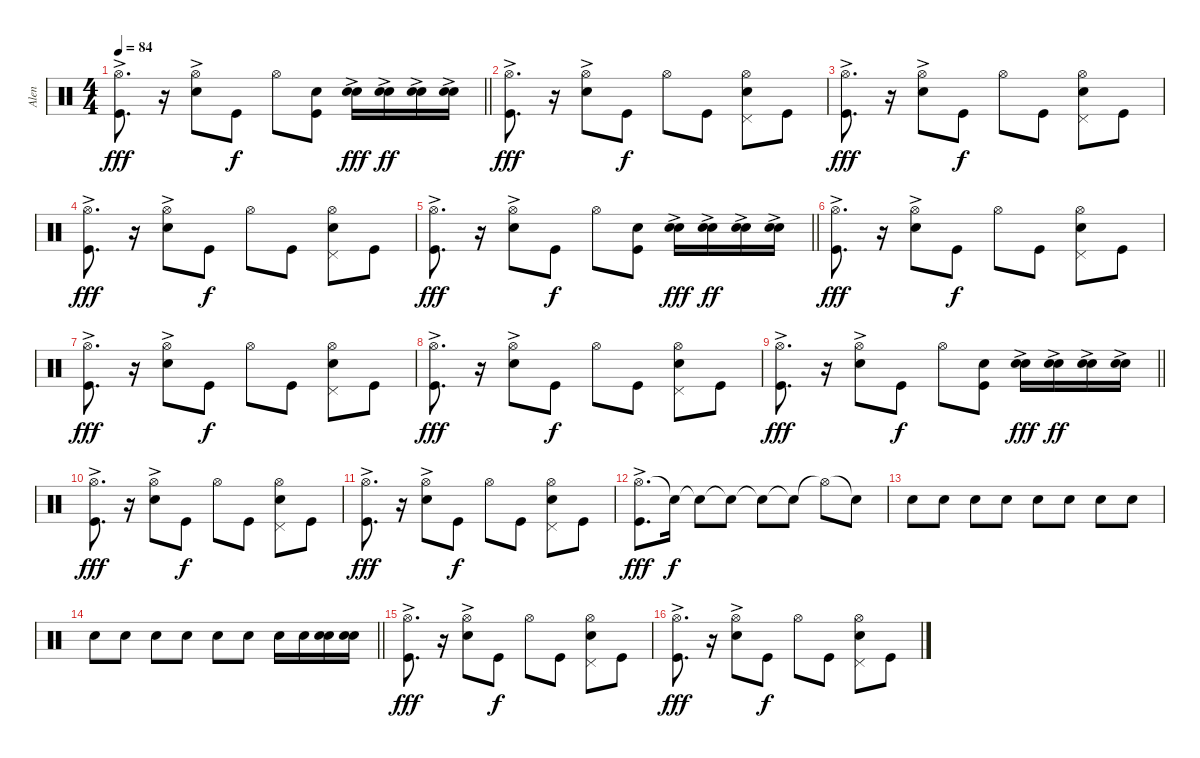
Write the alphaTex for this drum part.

\track ("Alen" "Alen") {instrument percussion}
\staff {score}
\articulation defaults
\ts (4 4)
\tempo 84
\clef neutral
\barLineRight lightlight
\ks c
("Hi-Hat (open)"{ac} "Kick (hit)").8{d dy fff} r.16 ("Hi-Hat (open)" "Snare (hit) 2"{ac}).8 "Kick (hit)".8{dy f} "Hi-Hat (open)".8 ("Electric Snare (hit)" "Kick (hit)").8 ("Snare (hit) 2"{ac} "Electric Snare (hit)"{ac}).16{dy fff} ("Snare (hit) 2"{ac} "Electric Snare (hit)").16{dy ff} ("Snare (hit) 2"{ac} "Electric Snare (hit)").16 ("Snare (hit) 2"{ac} "Electric Snare (hit)").16 |
("Hi-Hat (open)"{ac} "Kick (hit)").8{d dy fff} r.16 ("Hi-Hat (open)" "Snare (hit) 2"{ac}).8 "Kick (hit)".8{dy f} "Hi-Hat (open)".8 "Kick (hit)".8 ("Pedal Hi-Hat (hit)" "Snare (hit) 2" "Hi-Hat (open)").8 "Kick (hit)".8 |
("Hi-Hat (open)"{ac} "Kick (hit)").8{d dy fff} r.16 ("Hi-Hat (open)" "Snare (hit) 2"{ac}).8 "Kick (hit)".8{dy f} "Hi-Hat (open)".8 "Kick (hit)".8 ("Pedal Hi-Hat (hit)" "Snare (hit) 2" "Hi-Hat (open)").8 "Kick (hit)".8 |
("Hi-Hat (open)"{ac} "Kick (hit)").8{d dy fff} r.16 ("Hi-Hat (open)" "Snare (hit) 2"{ac}).8 "Kick (hit)".8{dy f} "Hi-Hat (open)".8 "Kick (hit)".8 ("Pedal Hi-Hat (hit)" "Snare (hit) 2" "Hi-Hat (open)").8 "Kick (hit)".8 |
\barLineRight lightlight
("Hi-Hat (open)"{ac} "Kick (hit)").8{d dy fff} r.16 ("Hi-Hat (open)" "Snare (hit) 2"{ac}).8 "Kick (hit)".8{dy f} "Hi-Hat (open)".8 ("Electric Snare (hit)" "Kick (hit)").8 ("Snare (hit) 2"{ac} "Electric Snare (hit)"{ac}).16{dy fff} ("Snare (hit) 2"{ac} "Electric Snare (hit)").16{dy ff} ("Snare (hit) 2"{ac} "Electric Snare (hit)").16 ("Snare (hit) 2"{ac} "Electric Snare (hit)").16 |
("Hi-Hat (open)"{ac} "Kick (hit)").8{d dy fff} r.16 ("Hi-Hat (open)" "Snare (hit) 2"{ac}).8 "Kick (hit)".8{dy f} "Hi-Hat (open)".8 "Kick (hit)".8 ("Pedal Hi-Hat (hit)" "Snare (hit) 2" "Hi-Hat (open)").8 "Kick (hit)".8 |
("Hi-Hat (open)"{ac} "Kick (hit)").8{d dy fff} r.16 ("Hi-Hat (open)" "Snare (hit) 2"{ac}).8 "Kick (hit)".8{dy f} "Hi-Hat (open)".8 "Kick (hit)".8 ("Pedal Hi-Hat (hit)" "Snare (hit) 2" "Hi-Hat (open)").8 "Kick (hit)".8 |
("Hi-Hat (open)"{ac} "Kick (hit)").8{d dy fff} r.16 ("Hi-Hat (open)" "Snare (hit) 2"{ac}).8 "Kick (hit)".8{dy f} "Hi-Hat (open)".8 "Kick (hit)".8 ("Pedal Hi-Hat (hit)" "Snare (hit) 2" "Hi-Hat (open)").8 "Kick (hit)".8 |
\barLineRight lightlight
("Hi-Hat (open)"{ac} "Kick (hit)").8{d dy fff} r.16 ("Hi-Hat (open)" "Snare (hit) 2"{ac}).8 "Kick (hit)".8{dy f} "Hi-Hat (open)".8 ("Electric Snare (hit)" "Kick (hit)").8 ("Snare (hit) 2"{ac} "Electric Snare (hit)"{ac}).16{dy fff} ("Snare (hit) 2"{ac} "Electric Snare (hit)").16{dy ff} ("Snare (hit) 2"{ac} "Electric Snare (hit)").16 ("Snare (hit) 2"{ac} "Electric Snare (hit)").16 |
("Hi-Hat (open)"{ac} "Kick (hit)").8{d dy fff} r.16 ("Hi-Hat (open)" "Snare (hit) 2"{ac}).8 "Kick (hit)".8{dy f} "Hi-Hat (open)".8 "Kick (hit)".8 ("Pedal Hi-Hat (hit)" "Snare (hit) 2" "Hi-Hat (open)").8 "Kick (hit)".8 |
("Hi-Hat (open)"{ac} "Kick (hit)").8{d dy fff} r.16 ("Hi-Hat (open)" "Snare (hit) 2"{ac}).8 "Kick (hit)".8{dy f} "Hi-Hat (open)".8 "Kick (hit)".8 ("Pedal Hi-Hat (hit)" "Snare (hit) 2" "Hi-Hat (open)").8 "Kick (hit)".8 |
("Hi-Hat (open)"{ac} "Kick (hit)").8{d dy fff} "Snare (hit)"{t}.16{dy f} "Snare (hit) 2"{t}.8 "Snare (hit)"{t}.8 "Snare (hit)"{t}.8 "Snare (hit)"{t}.8 "Hi-Hat (open)"{t}.8 "Snare (hit)"{t}.8 |
"Electric Snare (hit)".8 "Electric Snare (hit)".8 "Electric Snare (hit)".8 "Electric Snare (hit)".8 "Electric Snare (hit)".8 "Electric Snare (hit)".8 "Electric Snare (hit)".8 "Electric Snare (hit)".8 |
\barLineRight lightlight "Electric Snare (hit)".8 "Electric Snare (hit)".8 "Electric Snare (hit)".8 "Electric Snare (hit)".8 "Electric Snare (hit)".8 "Electric Snare (hit)".8 "Snare (hit) 2".16 "Snare (hit) 2".16
("Electric Snare (hit)" "Snare (hit) 2").16 ("Electric Snare (hit)" "Snare (hit) 2").16 |
("Hi-Hat (open)"{ac} "Kick (hit)").8{d dy fff} r.16 ("Hi-Hat (open)" "Snare (hit) 2"{ac}).8 "Kick (hit)".8{dy f} "Hi-Hat (open)".8 "Kick (hit)".8 ("Pedal Hi-Hat (hit)" "Snare (hit) 2" "Hi-Hat (open)").8 "Kick (hit)".8 |
("Hi-Hat (open)"{ac} "Kick (hit)").8{d dy fff} r.16 ("Hi-Hat (open)" "Snare (hit) 2"{ac}).8 "Kick (hit)".8{dy f} "Hi-Hat (open)".8 "Kick (hit)".8 ("Pedal Hi-Hat (hit)" "Snare (hit) 2" "Hi-Hat (open)").8 "Kick (hit)".8
